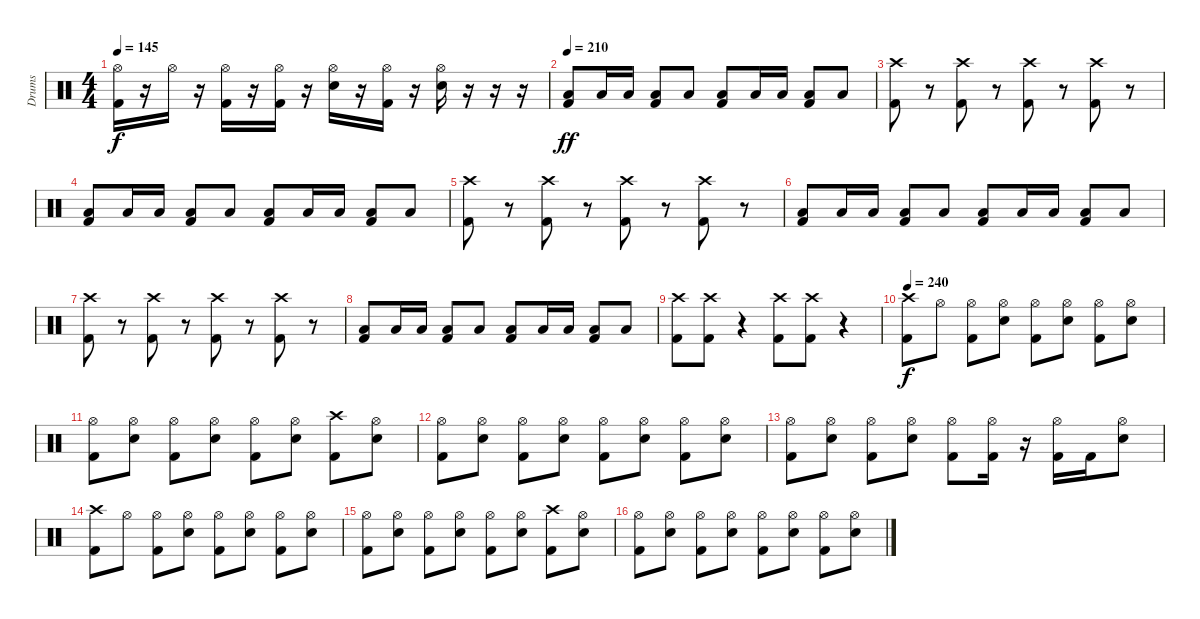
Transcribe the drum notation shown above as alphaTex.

\track ("Drums" "Drums") {instrument percussion}
\staff {score}
\articulation defaults
\ts (4 4)
\tempo 145
\clef neutral
\ks c
("Hi-Hat (open)" "Kick (hit) 2").16{dy f} r.16 "Hi-Hat (open)".16 r.16 ("Hi-Hat (open)" "Kick (hit) 2").16 r.16 ("Hi-Hat (open)" "Kick (hit) 2").16 r.16 ("Hi-Hat (open)" "Snare (hit) 2").16 r.16 ("Hi-Hat (open)" "Kick (hit) 2").16 r.16 ("Hi-Hat (open)" "Snare (hit) 2").16 r.16 r.16 r.16 |
\tempo 210
("Low Floor Tom (hit)" "Kick (hit) 2").8{dy ff} "Low Floor Tom (hit)".16 "Low Floor Tom (hit)".16 ("Low Floor Tom (hit)" "Kick (hit) 2").8 "Low Floor Tom (hit)".8 ("Low Floor Tom (hit)" "Kick (hit) 2").8 "Low Floor Tom (hit)".16 "Low Floor Tom (hit)".16 ("Low Floor Tom (hit)" "Kick (hit) 2").8 "Low Floor Tom (hit)".8 |
("Crash high (hit)" "Kick (hit) 2").8 r.8 ("Crash high (hit)" "Kick (hit) 2").8 r.8 ("Crash high (hit)" "Kick (hit) 2").8 r.8 ("Crash high (hit)" "Kick (hit) 2").8 r.8 |
("Low Floor Tom (hit)" "Kick (hit) 2").8 "Low Floor Tom (hit)".16 "Low Floor Tom (hit)".16 ("Low Floor Tom (hit)" "Kick (hit) 2").8 "Low Floor Tom (hit)".8 ("Low Floor Tom (hit)" "Kick (hit) 2").8 "Low Floor Tom (hit)".16 "Low Floor Tom (hit)".16 ("Low Floor Tom (hit)" "Kick (hit) 2").8 "Low Floor Tom (hit)".8 |
("Crash high (hit)" "Kick (hit) 2").8 r.8 ("Crash high (hit)" "Kick (hit) 2").8 r.8 ("Crash high (hit)" "Kick (hit) 2").8 r.8 ("Crash high (hit)" "Kick (hit) 2").8 r.8 |
("Low Floor Tom (hit)" "Kick (hit) 2").8 "Low Floor Tom (hit)".16 "Low Floor Tom (hit)".16 ("Low Floor Tom (hit)" "Kick (hit) 2").8 "Low Floor Tom (hit)".8 ("Low Floor Tom (hit)" "Kick (hit) 2").8 "Low Floor Tom (hit)".16 "Low Floor Tom (hit)".16 ("Low Floor Tom (hit)" "Kick (hit) 2").8 "Low Floor Tom (hit)".8 |
("Crash high (hit)" "Kick (hit) 2").8 r.8 ("Crash high (hit)" "Kick (hit) 2").8 r.8 ("Crash high (hit)" "Kick (hit) 2").8 r.8 ("Crash high (hit)" "Kick (hit) 2").8 r.8 |
("Low Floor Tom (hit)" "Kick (hit) 2").8 "Low Floor Tom (hit)".16 "Low Floor Tom (hit)".16 ("Low Floor Tom (hit)" "Kick (hit) 2").8 "Low Floor Tom (hit)".8 ("Low Floor Tom (hit)" "Kick (hit) 2").8 "Low Floor Tom (hit)".16 "Low Floor Tom (hit)".16 ("Low Floor Tom (hit)" "Kick (hit) 2").8 "Low Floor Tom (hit)".8 |
("Crash high (hit)" "Kick (hit) 2").8 ("Crash high (hit)" "Kick (hit) 2").8 r.4 ("Crash high (hit)" "Kick (hit) 2").8 ("Crash high (hit)" "Kick (hit) 2").8 r.4 |
\tempo 240
("Crash high (hit)" "Kick (hit) 2").8{dy f} "Hi-Hat (open)".8 ("Hi-Hat (open)" "Kick (hit) 2").8 ("Hi-Hat (open)" "Snare (hit) 2").8 ("Hi-Hat (open)" "Kick (hit) 2").8 ("Hi-Hat (open)" "Snare (hit) 2").8 ("Hi-Hat (open)" "Kick (hit) 2").8 ("Hi-Hat (open)" "Snare (hit) 2").8 |
("Hi-Hat (open)" "Kick (hit) 2").8 ("Hi-Hat (open)" "Snare (hit) 2").8 ("Hi-Hat (open)" "Kick (hit) 2").8 ("Hi-Hat (open)" "Snare (hit) 2").8 ("Hi-Hat (open)" "Kick (hit) 2").8 ("Hi-Hat (open)" "Snare (hit) 2").8 ("Crash high (hit)" "Kick (hit) 2").8 ("Hi-Hat (open)" "Snare (hit) 2").8 |
("Hi-Hat (open)" "Kick (hit) 2").8 ("Hi-Hat (open)" "Snare (hit) 2").8 ("Hi-Hat (open)" "Kick (hit) 2").8 ("Hi-Hat (open)" "Snare (hit) 2").8 ("Hi-Hat (open)" "Kick (hit) 2").8 ("Hi-Hat (open)" "Snare (hit) 2").8 ("Hi-Hat (open)" "Kick (hit) 2").8 ("Hi-Hat (open)" "Snare (hit) 2").8 |
("Hi-Hat (open)" "Kick (hit) 2").8 ("Hi-Hat (open)" "Snare (hit) 2").8 ("Hi-Hat (open)" "Kick (hit) 2").8 ("Hi-Hat (open)" "Snare (hit) 2").8 ("Hi-Hat (open)" "Kick (hit) 2").8 ("Hi-Hat (open)" "Kick (hit) 2").16 r.16 ("Hi-Hat (open)" "Kick (hit) 2").16 "Kick (hit) 2".16 ("Hi-Hat (open)" "Snare (hit) 2").8 |
("Crash high (hit)" "Kick (hit) 2").8 "Hi-Hat (open)".8 ("Hi-Hat (open)" "Kick (hit) 2").8 ("Hi-Hat (open)" "Snare (hit) 2").8 ("Hi-Hat (open)" "Kick (hit) 2").8 ("Hi-Hat (open)" "Snare (hit) 2").8 ("Hi-Hat (open)" "Kick (hit) 2").8 ("Hi-Hat (open)" "Snare (hit) 2").8 |
("Hi-Hat (open)" "Kick (hit) 2").8 ("Hi-Hat (open)" "Snare (hit) 2").8 ("Hi-Hat (open)" "Kick (hit) 2").8 ("Hi-Hat (open)" "Snare (hit) 2").8 ("Hi-Hat (open)" "Kick (hit) 2").8 ("Hi-Hat (open)" "Snare (hit) 2").8 ("Crash high (hit)" "Kick (hit) 2").8 ("Hi-Hat (open)" "Snare (hit) 2").8 |
("Hi-Hat (open)" "Kick (hit) 2").8 ("Hi-Hat (open)" "Snare (hit) 2").8 ("Hi-Hat (open)" "Kick (hit) 2").8 ("Hi-Hat (open)" "Snare (hit) 2").8 ("Hi-Hat (open)" "Kick (hit) 2").8 ("Hi-Hat (open)" "Snare (hit) 2").8 ("Hi-Hat (open)" "Kick (hit) 2").8 ("Hi-Hat (open)" "Snare (hit) 2").8
